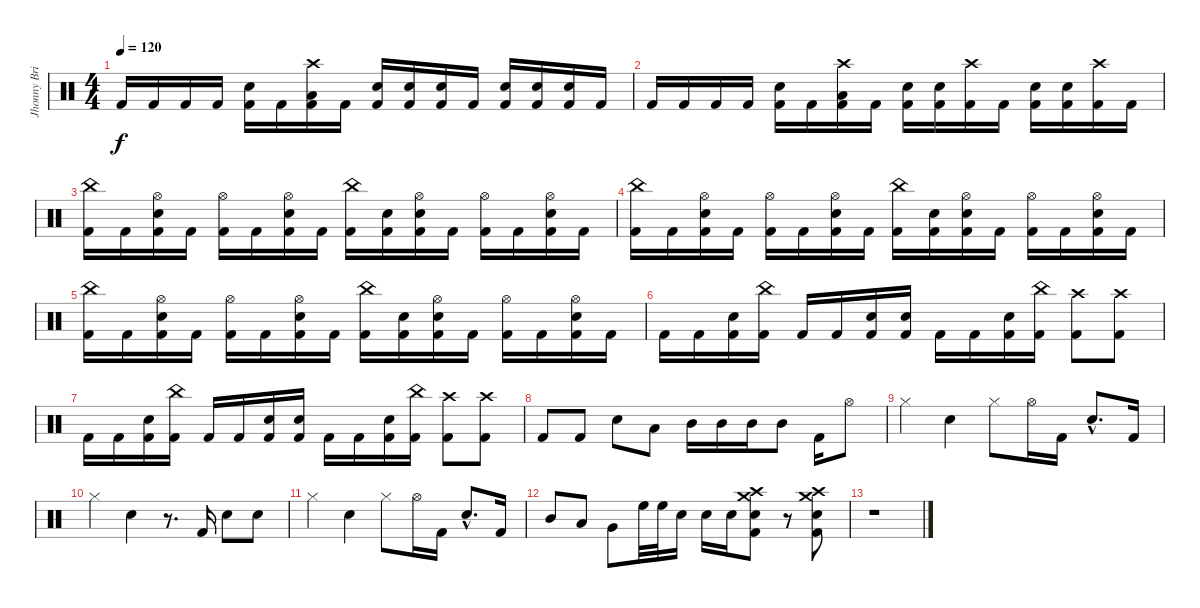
\track ("Jhonny Brillante" "Jhonny Bri") {instrument percussion}
\staff {score}
\articulation defaults
\ts (4 4)
\tempo 120
\clef neutral
\ks c "Kick (hit) 2".16{dy f} "Kick (hit) 2".16 "Kick (hit) 2".16 "Kick (hit) 2".16
("Snare (hit) 2" "Kick (hit) 2").16 "Kick (hit) 2".16 ("Low Tom (hit)" "Crash high (hit)" "Kick (hit) 2").16 "Kick (hit) 2".16 ("Snare (hit) 2" "Kick (hit) 2").16 ("Snare (hit) 2" "Kick (hit) 2").16 ("Snare (hit) 2" "Kick (hit) 2").16 "Kick (hit) 2".16 ("Snare (hit) 2" "Kick (hit) 2").16 ("Snare (hit) 2" "Kick (hit) 2").16 ("Snare (hit) 2" "Kick (hit) 2").16 "Kick (hit) 2".16 |
"Kick (hit) 2".16 "Kick (hit) 2".16 "Kick (hit) 2".16 "Kick (hit) 2".16 ("Snare (hit) 2" "Kick (hit) 2").16 "Kick (hit) 2".16 ("Low Tom (hit)" "Crash high (hit)" "Kick (hit) 2").16 "Kick (hit) 2".16 ("Snare (hit) 2" "Kick (hit) 2").16 ("Snare (hit) 2" "Kick (hit) 2").16 ("Crash high (hit)" "Kick (hit) 2").16 "Kick (hit) 2".16 ("Snare (hit) 2" "Kick (hit) 2").16 ("Snare (hit) 2" "Kick (hit) 2").16 ("Crash high (hit)" "Kick (hit) 2").16 "Kick (hit) 2".16 |
("China (hit)" "Kick (hit) 2").16 "Kick (hit) 2".16 ("Hi-Hat (open)" "Snare (hit) 2" "Kick (hit) 2").16 "Kick (hit) 2".16 ("Hi-Hat (open)" "Kick (hit) 2").16 "Kick (hit) 2".16 ("Hi-Hat (open)" "Snare (hit) 2" "Kick (hit) 2").16 "Kick (hit) 2".16 ("China (hit)" "Kick (hit) 2").16 ("Snare (hit) 2" "Kick (hit) 2").16 ("Hi-Hat (open)" "Snare (hit) 2" "Kick (hit) 2").16 "Kick (hit) 2".16 ("Hi-Hat (open)" "Kick (hit) 2").16 "Kick (hit) 2".16 ("Hi-Hat (open)" "Snare (hit) 2" "Kick (hit) 2").16 "Kick (hit) 2".16 |
("China (hit)" "Kick (hit) 2").16 "Kick (hit) 2".16 ("Hi-Hat (open)" "Snare (hit) 2" "Kick (hit) 2").16 "Kick (hit) 2".16 ("Hi-Hat (open)" "Kick (hit) 2").16 "Kick (hit) 2".16 ("Hi-Hat (open)" "Snare (hit) 2" "Kick (hit) 2").16 "Kick (hit) 2".16 ("China (hit)" "Kick (hit) 2").16 ("Snare (hit) 2" "Kick (hit) 2").16 ("Hi-Hat (open)" "Snare (hit) 2" "Kick (hit) 2").16 "Kick (hit) 2".16 ("Hi-Hat (open)" "Kick (hit) 2").16 "Kick (hit) 2".16 ("Hi-Hat (open)" "Snare (hit) 2" "Kick (hit) 2").16 "Kick (hit) 2".16 |
("China (hit)" "Kick (hit) 2").16 "Kick (hit) 2".16 ("Hi-Hat (open)" "Snare (hit) 2" "Kick (hit) 2").16 "Kick (hit) 2".16 ("Hi-Hat (open)" "Kick (hit) 2").16 "Kick (hit) 2".16 ("Hi-Hat (open)" "Snare (hit) 2" "Kick (hit) 2").16 "Kick (hit) 2".16 ("China (hit)" "Kick (hit) 2").16 ("Snare (hit) 2" "Kick (hit) 2").16 ("Hi-Hat (open)" "Snare (hit) 2" "Kick (hit) 2").16 "Kick (hit) 2".16 ("Hi-Hat (open)" "Kick (hit) 2").16 "Kick (hit) 2".16 ("Hi-Hat (open)" "Snare (hit) 2" "Kick (hit) 2").16 "Kick (hit) 2".16 |
"Kick (hit) 2".16 "Kick (hit) 2".16 ("Snare (hit) 2" "Kick (hit) 2").16 ("China (hit)" "Kick (hit) 2").16 "Kick (hit) 2".16 "Kick (hit) 2".16 ("Snare (hit) 2" "Kick (hit) 2").16 ("Snare (hit) 2" "Kick (hit) 2").16 "Kick (hit) 2".16 "Kick (hit) 2".16 ("Snare (hit) 2" "Kick (hit) 2").16 ("China (hit)" "Kick (hit) 2").16 ("Crash high (hit)" "Kick (hit) 2").8 ("Crash high (hit)" "Kick (hit) 2").8 |
"Kick (hit) 2".16 "Kick (hit) 2".16 ("Snare (hit) 2" "Kick (hit) 2").16 ("China (hit)" "Kick (hit) 2").16 "Kick (hit) 2".16 "Kick (hit) 2".16 ("Snare (hit) 2" "Kick (hit) 2").16 ("Snare (hit) 2" "Kick (hit) 2").16 "Kick (hit) 2".16 "Kick (hit) 2".16 ("Snare (hit) 2" "Kick (hit) 2").16 ("China (hit)" "Kick (hit) 2").16 ("Crash high (hit)" "Kick (hit) 2").8 ("Crash high (hit)" "Kick (hit) 2").8 |
"Kick (hit) 2".8{volume 13} "Kick (hit) 2".8 "Snare (hit) 2".8 "Low Tom (hit)".8 "Mid Tom (hit)".16 "Mid Tom (hit)".16 "Mid Tom (hit)".16 "Mid Tom (hit)".8 "Kick (hit) 2".16 "Hi-Hat (open)".8 |
"Hi-Hat (closed)".4 "Snare (hit) 2".4 "Hi-Hat (closed)".8 "Hi-Hat (open)".16 "Kick (hit) 2".16 "Snare (hit) 2"{hac}.8{d} "Kick (hit) 2".16 |
"Hi-Hat (closed)".4 "Snare (hit) 2".4 r.8{d} "Kick (hit) 2".16 "Snare (hit) 2".8 "Snare (hit) 2".8 |
"Hi-Hat (closed)".4 "Snare (hit) 2".4 "Hi-Hat (closed)".8 "Hi-Hat (open)".16 "Kick (hit) 2".16 "Snare (hit) 2"{hac}.8{d} "Kick (hit) 2".16 |
"Mid Tom (hit)".8 "Low Tom (hit)".8 "Very Low Tom (hit)".8 "High Floor Tom (hit)".32 "High Floor Tom (hit)".32 "Snare (hit) 2".16 "Snare (hit) 2".16 "Snare (hit) 2".16 ("Crash medium (hit)" "Snare (hit) 2" "Crash high (hit)" "Kick (hit) 2").8 r.8 ("Crash medium (hit)" "Crash high (hit)" "Kick (hit) 2" "Snare (hit) 2").8 |
r.1
